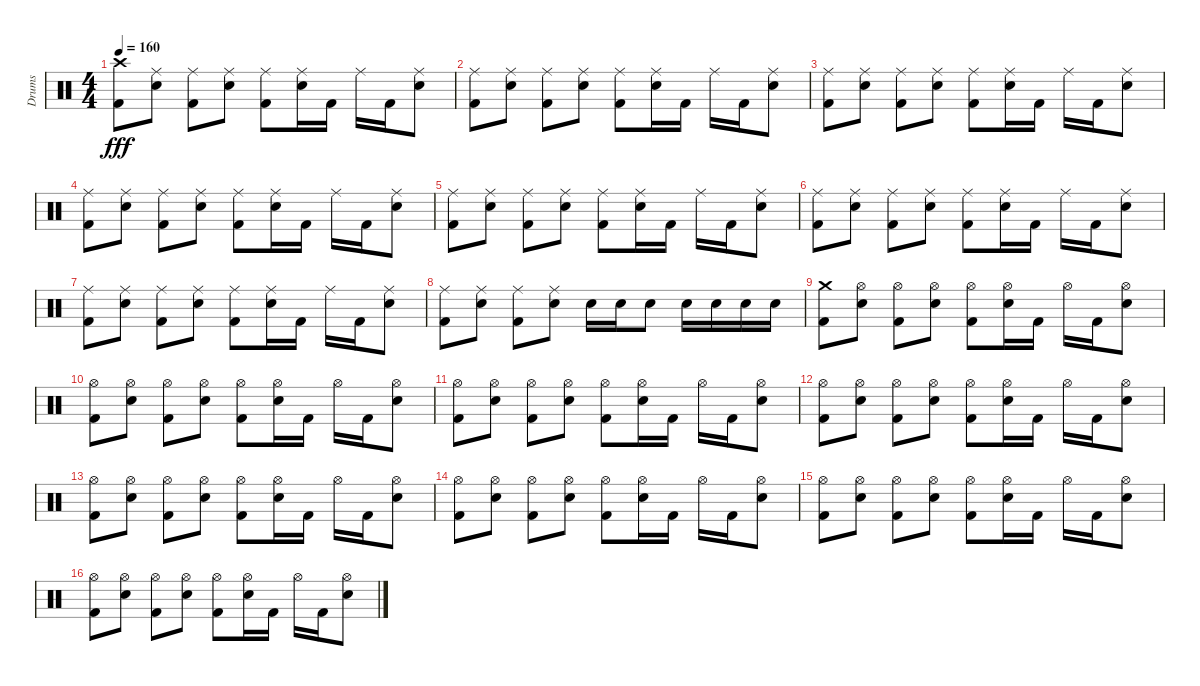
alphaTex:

\track ("Drums" "Drums") {instrument percussion}
\staff {score}
\articulation defaults
\ts (4 4)
\tempo 160
\clef neutral
\ks c
("Crash high (hit)" "Kick (hit) 2").8{dy fff} ("Ride (middle)" "Electric Snare (hit)").8 ("Ride (middle)" "Kick (hit) 2").8 ("Ride (middle)" "Electric Snare (hit)").8 ("Ride (middle)" "Kick (hit) 2").8 ("Ride (middle)" "Electric Snare (hit)").16 "Kick (hit) 2".16 "Ride (middle)".16 "Kick (hit) 2".16 ("Ride (middle)" "Electric Snare (hit)").8 |
("Ride (middle)" "Kick (hit) 2").8 ("Ride (middle)" "Electric Snare (hit)").8 ("Ride (middle)" "Kick (hit) 2").8 ("Ride (middle)" "Electric Snare (hit)").8 ("Ride (middle)" "Kick (hit) 2").8 ("Ride (middle)" "Electric Snare (hit)").16 "Kick (hit) 2".16 "Ride (middle)".16 "Kick (hit) 2".16 ("Ride (middle)" "Electric Snare (hit)").8 |
("Ride (middle)" "Kick (hit) 2").8 ("Ride (middle)" "Electric Snare (hit)").8 ("Ride (middle)" "Kick (hit) 2").8 ("Ride (middle)" "Electric Snare (hit)").8 ("Ride (middle)" "Kick (hit) 2").8 ("Ride (middle)" "Electric Snare (hit)").16 "Kick (hit) 2".16 "Ride (middle)".16 "Kick (hit) 2".16 ("Ride (middle)" "Electric Snare (hit)").8 |
("Ride (middle)" "Kick (hit) 2").8 ("Ride (middle)" "Electric Snare (hit)").8 ("Ride (middle)" "Kick (hit) 2").8 ("Ride (middle)" "Electric Snare (hit)").8 ("Ride (middle)" "Kick (hit) 2").8 ("Ride (middle)" "Electric Snare (hit)").16 "Kick (hit) 2".16 "Ride (middle)".16 "Kick (hit) 2".16 ("Ride (middle)" "Electric Snare (hit)").8 |
("Ride (middle)" "Kick (hit) 2").8 ("Ride (middle)" "Electric Snare (hit)").8 ("Ride (middle)" "Kick (hit) 2").8 ("Ride (middle)" "Electric Snare (hit)").8 ("Ride (middle)" "Kick (hit) 2").8 ("Ride (middle)" "Electric Snare (hit)").16 "Kick (hit) 2".16 "Ride (middle)".16 "Kick (hit) 2".16 ("Ride (middle)" "Electric Snare (hit)").8 |
("Ride (middle)" "Kick (hit) 2").8 ("Ride (middle)" "Electric Snare (hit)").8 ("Ride (middle)" "Kick (hit) 2").8 ("Ride (middle)" "Electric Snare (hit)").8 ("Ride (middle)" "Kick (hit) 2").8 ("Ride (middle)" "Electric Snare (hit)").16 "Kick (hit) 2".16 "Ride (middle)".16 "Kick (hit) 2".16 ("Ride (middle)" "Electric Snare (hit)").8 |
("Ride (middle)" "Kick (hit) 2").8 ("Ride (middle)" "Electric Snare (hit)").8 ("Ride (middle)" "Kick (hit) 2").8 ("Ride (middle)" "Electric Snare (hit)").8 ("Ride (middle)" "Kick (hit) 2").8 ("Ride (middle)" "Electric Snare (hit)").16 "Kick (hit) 2".16 "Ride (middle)".16 "Kick (hit) 2".16 ("Ride (middle)" "Electric Snare (hit)").8 |
("Ride (middle)" "Kick (hit) 2").8 ("Ride (middle)" "Electric Snare (hit)").8 ("Ride (middle)" "Kick (hit) 2").8 ("Ride (middle)" "Electric Snare (hit)").8 "Electric Snare (hit)".16 "Electric Snare (hit)".16 "Electric Snare (hit)".8 "Electric Snare (hit)".16 "Electric Snare (hit)".16 "Electric Snare (hit)".16 "Electric Snare (hit)".16 |
("Crash medium (hit)" "Kick (hit) 2").8 ("Hi-Hat (open)" "Electric Snare (hit)").8 ("Hi-Hat (open)" "Kick (hit) 2").8 ("Hi-Hat (open)" "Electric Snare (hit)").8 ("Hi-Hat (open)" "Kick (hit) 2").8 ("Hi-Hat (open)" "Electric Snare (hit)").16 "Kick (hit) 2".16 "Hi-Hat (open)".16 "Kick (hit) 2".16 ("Hi-Hat (open)" "Electric Snare (hit)").8 |
("Hi-Hat (open)" "Kick (hit) 2").8 ("Hi-Hat (open)" "Electric Snare (hit)").8 ("Hi-Hat (open)" "Kick (hit) 2").8 ("Hi-Hat (open)" "Electric Snare (hit)").8 ("Hi-Hat (open)" "Kick (hit) 2").8 ("Hi-Hat (open)" "Electric Snare (hit)").16 "Kick (hit) 2".16 "Hi-Hat (open)".16 "Kick (hit) 2".16 ("Hi-Hat (open)" "Electric Snare (hit)").8 |
("Hi-Hat (open)" "Kick (hit) 2").8 ("Hi-Hat (open)" "Electric Snare (hit)").8 ("Hi-Hat (open)" "Kick (hit) 2").8 ("Hi-Hat (open)" "Electric Snare (hit)").8 ("Hi-Hat (open)" "Kick (hit) 2").8 ("Hi-Hat (open)" "Electric Snare (hit)").16 "Kick (hit) 2".16 "Hi-Hat (open)".16 "Kick (hit) 2".16 ("Hi-Hat (open)" "Electric Snare (hit)").8 |
("Hi-Hat (open)" "Kick (hit) 2").8 ("Hi-Hat (open)" "Electric Snare (hit)").8 ("Hi-Hat (open)" "Kick (hit) 2").8 ("Hi-Hat (open)" "Electric Snare (hit)").8 ("Hi-Hat (open)" "Kick (hit) 2").8 ("Hi-Hat (open)" "Electric Snare (hit)").16 "Kick (hit) 2".16 "Hi-Hat (open)".16 "Kick (hit) 2".16 ("Hi-Hat (open)" "Electric Snare (hit)").8 |
("Hi-Hat (open)" "Kick (hit) 2").8 ("Hi-Hat (open)" "Electric Snare (hit)").8 ("Hi-Hat (open)" "Kick (hit) 2").8 ("Hi-Hat (open)" "Electric Snare (hit)").8 ("Hi-Hat (open)" "Kick (hit) 2").8 ("Hi-Hat (open)" "Electric Snare (hit)").16 "Kick (hit) 2".16 "Hi-Hat (open)".16 "Kick (hit) 2".16 ("Hi-Hat (open)" "Electric Snare (hit)").8 |
("Hi-Hat (open)" "Kick (hit) 2").8 ("Hi-Hat (open)" "Electric Snare (hit)").8 ("Hi-Hat (open)" "Kick (hit) 2").8 ("Hi-Hat (open)" "Electric Snare (hit)").8 ("Hi-Hat (open)" "Kick (hit) 2").8 ("Hi-Hat (open)" "Electric Snare (hit)").16 "Kick (hit) 2".16 "Hi-Hat (open)".16 "Kick (hit) 2".16 ("Hi-Hat (open)" "Electric Snare (hit)").8 |
("Hi-Hat (open)" "Kick (hit) 2").8 ("Hi-Hat (open)" "Electric Snare (hit)").8 ("Hi-Hat (open)" "Kick (hit) 2").8 ("Hi-Hat (open)" "Electric Snare (hit)").8 ("Hi-Hat (open)" "Kick (hit) 2").8 ("Hi-Hat (open)" "Electric Snare (hit)").16 "Kick (hit) 2".16 "Hi-Hat (open)".16 "Kick (hit) 2".16 ("Hi-Hat (open)" "Electric Snare (hit)").8 |
("Hi-Hat (open)" "Kick (hit) 2").8 ("Hi-Hat (open)" "Electric Snare (hit)").8 ("Hi-Hat (open)" "Kick (hit) 2").8 ("Hi-Hat (open)" "Electric Snare (hit)").8 ("Hi-Hat (open)" "Kick (hit) 2").8 ("Hi-Hat (open)" "Electric Snare (hit)").16 "Kick (hit) 2".16 "Hi-Hat (open)".16 "Kick (hit) 2".16 ("Hi-Hat (open)" "Electric Snare (hit)").8
